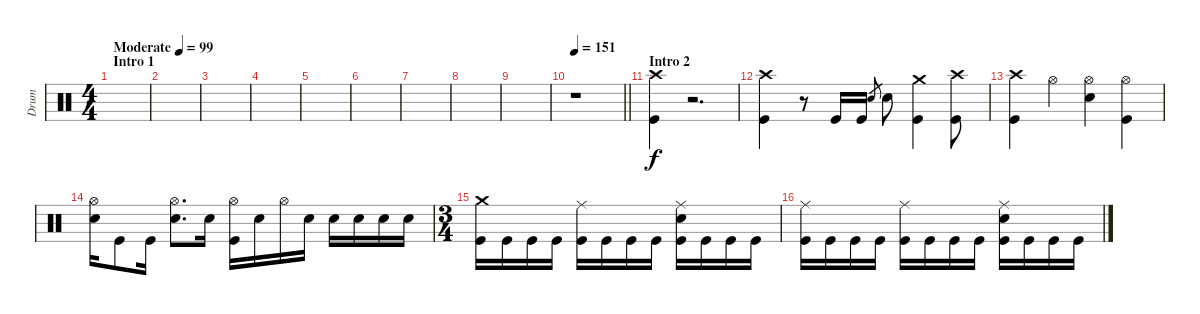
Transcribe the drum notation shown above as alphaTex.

\track ("Drum" "Drum") {instrument percussion}
\staff {score}
\articulation defaults
\ts (4 4)
\section ("" "Intro 1")
\tempo (99 "Moderate")
\clef neutral
\ks c
|
|
|
|
|
|
|
|
|
\tempo 151
\barLineRight lightlight
r.1 |
\section ("" "Intro 2")
("Crash high (hit)" "Kick (hit)").4 r.2{d} |
("Crash high (hit)" "Kick (hit)").4 r.8 "Kick (hit)".16 "Kick (hit)".16 "Snare (hit) 2".8{gr} "Snare (hit) 2".8 ("Crash medium (hit)" "Kick (hit)").4 ("Crash high (hit)" "Kick (hit)").8 |
("Crash high (hit)" "Kick (hit)").4 "Hi-Hat (open)".4 ("Hi-Hat (open)" "Snare (hit) 2").4 ("Hi-Hat (open)" "Kick (hit)").4 |
("Hi-Hat (open)" "Snare (hit) 2").16 "Kick (hit)".8 "Kick (hit)".16 ("Hi-Hat (open)" "Snare (hit) 2").8{d} "Snare (hit) 2".16 ("Hi-Hat (open)" "Kick (hit)").16 "Snare (hit) 2".16 "Hi-Hat (open)".16 "Snare (hit) 2".16 "Snare (hit) 2".16 "Snare (hit) 2".16 "Snare (hit) 2".16 "Snare (hit) 2".16 |
\ts (3 4)
("Crash medium (hit)" "Kick (hit)").16 "Kick (hit)".16 "Kick (hit)".16 "Kick (hit)".16 ("Ride (middle)" "Kick (hit)").16 "Kick (hit)".16 "Kick (hit)".16 "Kick (hit)".16 ("Ride (middle)" "Kick (hit)" "Snare (hit) 2").16 "Kick (hit)".16 "Kick (hit)".16 "Kick (hit)".16 |
("Ride (middle)" "Kick (hit)").16 "Kick (hit)".16 "Kick (hit)".16 "Kick (hit)".16 ("Ride (middle)" "Kick (hit)").16 "Kick (hit)".16 "Kick (hit)".16 "Kick (hit)".16 ("Ride (middle)" "Kick (hit)" "Snare (hit) 2").16 "Kick (hit)".16 "Kick (hit)".16 "Kick (hit)".16
